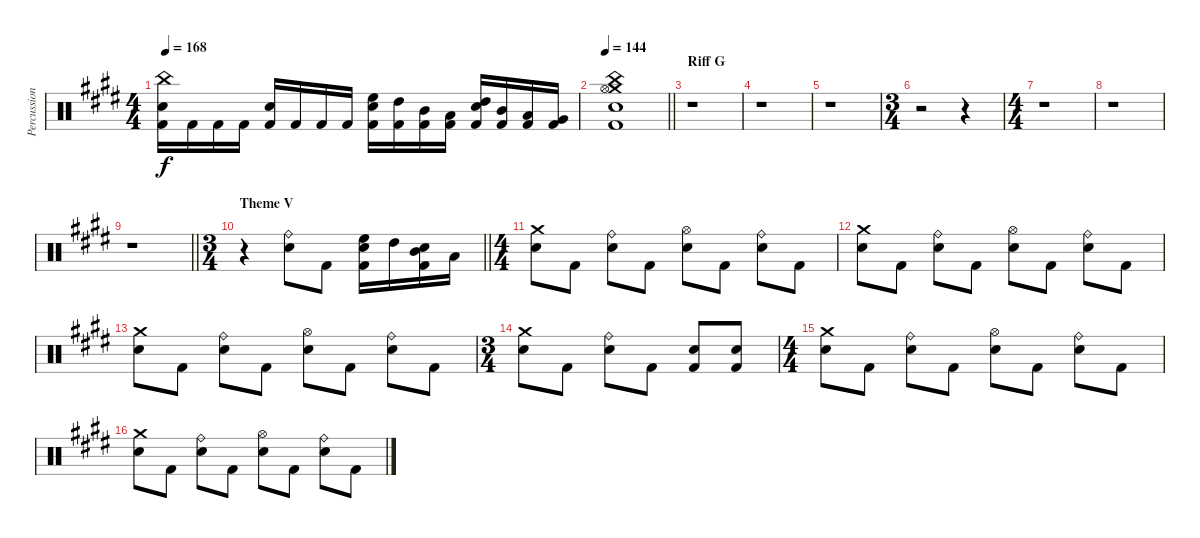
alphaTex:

\track ("Percussion" "Percussion") {instrument percussion}
\staff {score}
\articulation defaults
\ts (4 4)
\tempo 168
\clef neutral
\ks c#minor
("China (hit)" "Snare (hit) 2" "Kick (hit) 2").16{dy f} "Kick (hit) 2".16 "Kick (hit) 2".16 "Kick (hit) 2".16 ("Snare (hit) 2" "Kick (hit) 2").16 "Kick (hit) 2".16 "Kick (hit) 2".16 "Kick (hit) 2".16 ("High Floor Tom (hit)" "Snare (hit) 2" "Kick (hit) 2").16 ("High Tom (hit)" "Kick (hit) 2").16 ("Mid Tom (hit)" "Kick (hit) 2").16 ("Low Tom (hit)" "Kick (hit) 2").16 ("High Tom (hit)" "Snare (hit) 2" "Kick (hit) 2").16 ("Mid Tom (hit)" "Kick (hit) 2").16 ("Low Tom (hit)" "Kick (hit) 2").16 ("Very Low Tom (hit)" "Kick (hit) 2").16 |
\tempo 144
\barLineRight lightlight
("Crash medium (hit)" "China (hit)" "Hi-Hat (open)" "Snare (hit) 2" "Kick (hit) 2").1 |
\section ("" "Riff G")
r.1 |
r.1 |
r.1 |
\ts (3 4)
r.2 r.4 |
\ts (4 4)
r.1 |
r.1 |
\barLineRight lightlight
r.1 |
\ts (3 4)
\section ("" "Theme V")
\barLineRight lightlight
r.4 ("Ride (bell)" "Snare (hit) 2").8 "Kick (hit) 2".8 ("High Floor Tom (hit)" "Snare (hit) 2" "Kick (hit) 2").16 "High Tom (hit)".16 ("Mid Tom (hit)" "Snare (hit) 2" "Kick (hit) 2").16 "Low Tom (hit)".16 |
\ts (4 4)
("Crash medium (hit)" "Snare (hit) 2").8 "Kick (hit) 2".8 ("Ride (bell)" "Snare (hit) 2").8 "Kick (hit) 2".8 ("Hi-Hat (open)" "Snare (hit) 2").8 "Kick (hit) 2".8 ("Ride (bell)" "Snare (hit) 2").8 "Kick (hit) 2".8 |
("Crash medium (hit)" "Snare (hit) 2").8 "Kick (hit) 2".8 ("Ride (bell)" "Snare (hit) 2").8 "Kick (hit) 2".8 ("Hi-Hat (open)" "Snare (hit) 2").8 "Kick (hit) 2".8 ("Ride (bell)" "Snare (hit) 2").8 "Kick (hit) 2".8 |
("Crash medium (hit)" "Snare (hit) 2").8 "Kick (hit) 2".8 ("Ride (bell)" "Snare (hit) 2").8 "Kick (hit) 2".8 ("Hi-Hat (open)" "Snare (hit) 2").8 "Kick (hit) 2".8 ("Ride (bell)" "Snare (hit) 2").8 "Kick (hit) 2".8 |
\ts (3 4)
("Crash medium (hit)" "Snare (hit) 2").8 "Kick (hit) 2".8 ("Ride (bell)" "Snare (hit) 2").8 "Kick (hit) 2".8 ("Snare (hit) 2" "Kick (hit) 2").8 ("Snare (hit) 2" "Kick (hit) 2").8 |
\ts (4 4)
("Crash medium (hit)" "Snare (hit) 2").8 "Kick (hit) 2".8 ("Ride (bell)" "Snare (hit) 2").8 "Kick (hit) 2".8 ("Hi-Hat (open)" "Snare (hit) 2").8 "Kick (hit) 2".8 ("Ride (bell)" "Snare (hit) 2").8 "Kick (hit) 2".8 |
("Crash medium (hit)" "Snare (hit) 2").8 "Kick (hit) 2".8 ("Ride (bell)" "Snare (hit) 2").8 "Kick (hit) 2".8 ("Hi-Hat (open)" "Snare (hit) 2").8 "Kick (hit) 2".8 ("Ride (bell)" "Snare (hit) 2").8 "Kick (hit) 2".8
